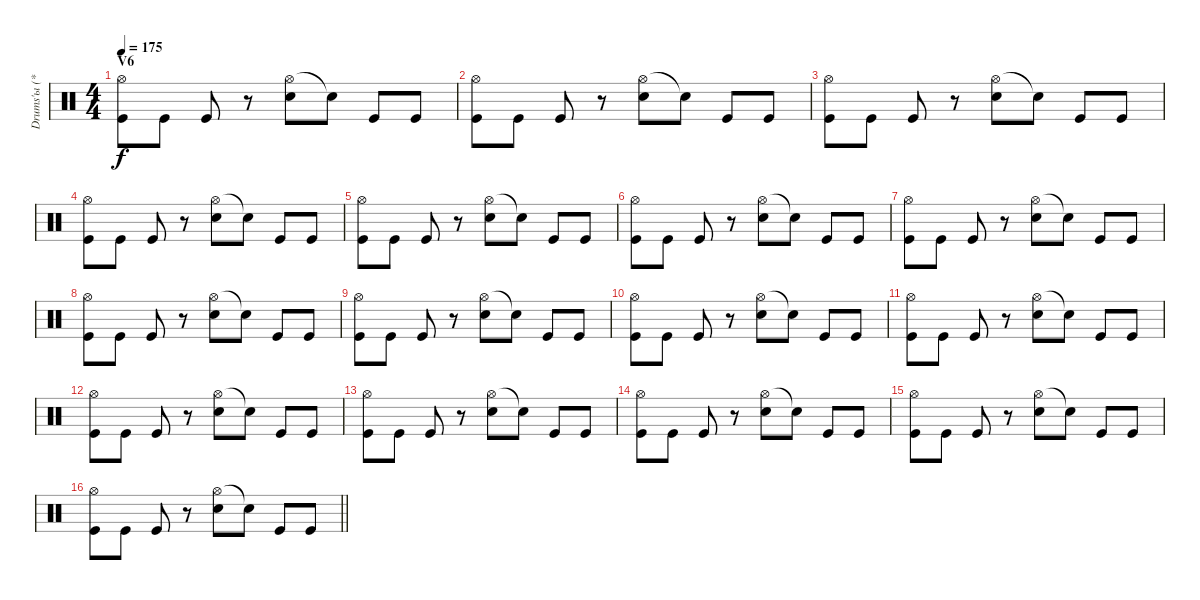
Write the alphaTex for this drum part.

\track ("Drums'ы (***)" "Drums'ы (*") {instrument percussion}
\staff {score}
\articulation defaults
\ts (4 4)
\section ("" "V6")
\tempo 175
\clef neutral
\ks c
("Hi-Hat (open)" "Kick (hit)").8{dy f} "Kick (hit)".8 "Kick (hit)".8 r.8 ("Hi-Hat (open)" "Electric Snare (hit)").8 "Snare (hit)"{t}.8 "Kick (hit)".8 "Kick (hit)".8 |
("Hi-Hat (open)" "Kick (hit)").8 "Kick (hit)".8 "Kick (hit)".8 r.8 ("Hi-Hat (open)" "Electric Snare (hit)").8 "Snare (hit)"{t}.8 "Kick (hit)".8 "Kick (hit)".8 |
("Hi-Hat (open)" "Kick (hit)").8 "Kick (hit)".8 "Kick (hit)".8 r.8 ("Hi-Hat (open)" "Electric Snare (hit)").8 "Snare (hit)"{t}.8 "Kick (hit)".8 "Kick (hit)".8 |
("Hi-Hat (open)" "Kick (hit)").8 "Kick (hit)".8 "Kick (hit)".8 r.8 ("Hi-Hat (open)" "Electric Snare (hit)").8 "Snare (hit)"{t}.8 "Kick (hit)".8 "Kick (hit)".8 |
("Hi-Hat (open)" "Kick (hit)").8 "Kick (hit)".8 "Kick (hit)".8 r.8 ("Hi-Hat (open)" "Electric Snare (hit)").8 "Snare (hit)"{t}.8 "Kick (hit)".8 "Kick (hit)".8 |
("Hi-Hat (open)" "Kick (hit)").8 "Kick (hit)".8 "Kick (hit)".8 r.8 ("Hi-Hat (open)" "Electric Snare (hit)").8 "Snare (hit)"{t}.8 "Kick (hit)".8 "Kick (hit)".8 |
("Hi-Hat (open)" "Kick (hit)").8 "Kick (hit)".8 "Kick (hit)".8 r.8 ("Hi-Hat (open)" "Electric Snare (hit)").8 "Snare (hit)"{t}.8 "Kick (hit)".8 "Kick (hit)".8 |
("Hi-Hat (open)" "Kick (hit)").8 "Kick (hit)".8 "Kick (hit)".8 r.8 ("Hi-Hat (open)" "Electric Snare (hit)").8 "Snare (hit)"{t}.8 "Kick (hit)".8 "Kick (hit)".8 |
("Hi-Hat (open)" "Kick (hit)").8 "Kick (hit)".8 "Kick (hit)".8 r.8 ("Hi-Hat (open)" "Electric Snare (hit)").8 "Snare (hit)"{t}.8 "Kick (hit)".8 "Kick (hit)".8 |
("Hi-Hat (open)" "Kick (hit)").8 "Kick (hit)".8 "Kick (hit)".8 r.8 ("Hi-Hat (open)" "Electric Snare (hit)").8 "Snare (hit)"{t}.8 "Kick (hit)".8 "Kick (hit)".8 |
("Hi-Hat (open)" "Kick (hit)").8 "Kick (hit)".8 "Kick (hit)".8 r.8 ("Hi-Hat (open)" "Electric Snare (hit)").8 "Snare (hit)"{t}.8 "Kick (hit)".8 "Kick (hit)".8 |
("Hi-Hat (open)" "Kick (hit)").8 "Kick (hit)".8 "Kick (hit)".8 r.8 ("Hi-Hat (open)" "Electric Snare (hit)").8 "Snare (hit)"{t}.8 "Kick (hit)".8 "Kick (hit)".8 |
("Hi-Hat (open)" "Kick (hit)").8 "Kick (hit)".8 "Kick (hit)".8 r.8 ("Hi-Hat (open)" "Electric Snare (hit)").8 "Snare (hit)"{t}.8 "Kick (hit)".8 "Kick (hit)".8 |
("Hi-Hat (open)" "Kick (hit)").8 "Kick (hit)".8 "Kick (hit)".8 r.8 ("Hi-Hat (open)" "Electric Snare (hit)").8 "Snare (hit)"{t}.8 "Kick (hit)".8 "Kick (hit)".8 |
("Hi-Hat (open)" "Kick (hit)").8 "Kick (hit)".8 "Kick (hit)".8 r.8 ("Hi-Hat (open)" "Electric Snare (hit)").8 "Snare (hit)"{t}.8 "Kick (hit)".8 "Kick (hit)".8 |
\barLineRight lightlight
("Hi-Hat (open)" "Kick (hit)").8 "Kick (hit)".8 "Kick (hit)".8 r.8 ("Hi-Hat (open)" "Electric Snare (hit)").8 "Snare (hit)"{t}.8 "Kick (hit)".8 "Kick (hit)".8
